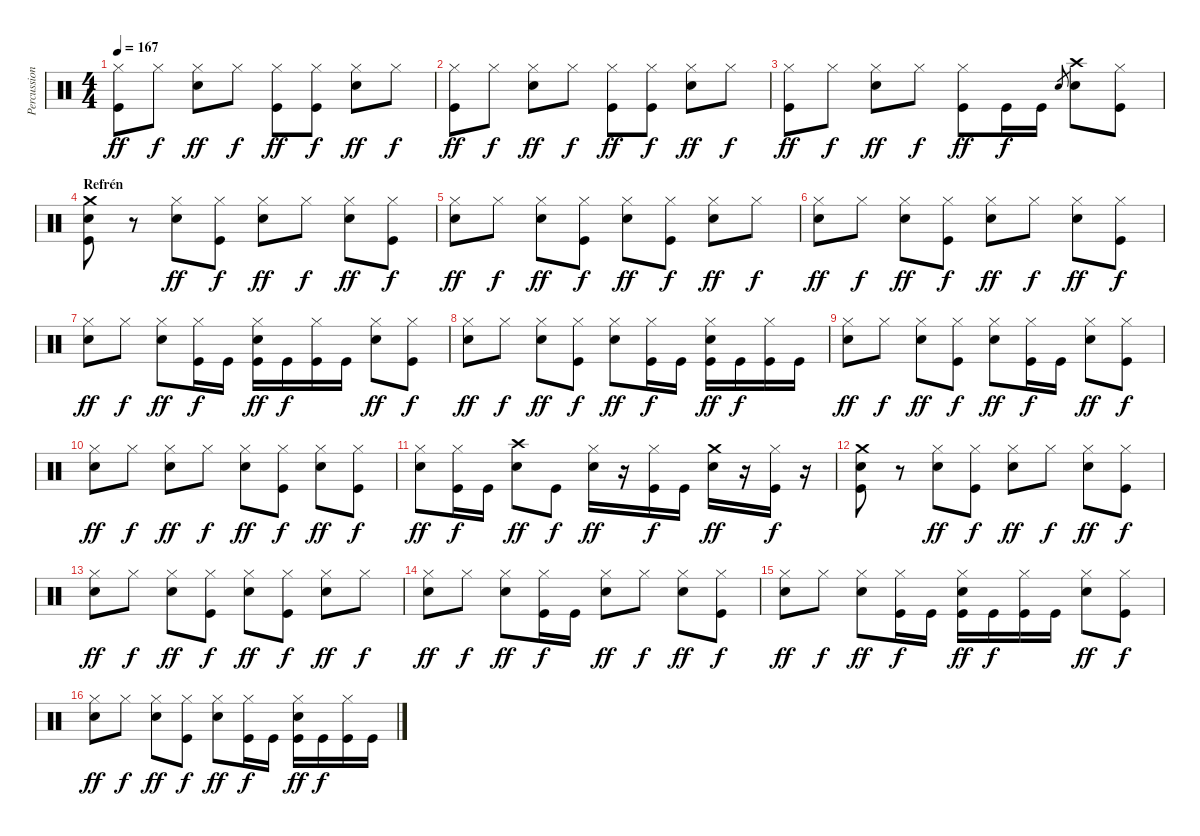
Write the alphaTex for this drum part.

\track ("Percussion" "Percussion") {instrument percussion}
\staff {score}
\articulation defaults
\ts (4 4)
\tempo 167
\clef neutral
\ks c
("Hi-Hat (closed)" "Kick (hit)").8{dy ff} "Hi-Hat (closed)".8{dy f} ("Hi-Hat (closed)" "Electric Snare (hit)").8{dy ff} "Hi-Hat (closed)".8{dy f} ("Hi-Hat (closed)" "Kick (hit)").8{dy ff} ("Hi-Hat (closed)" "Kick (hit)").8{dy f} ("Hi-Hat (closed)" "Electric Snare (hit)").8{dy ff} "Hi-Hat (closed)".8{dy f} |
("Hi-Hat (closed)" "Kick (hit)").8{dy ff} "Hi-Hat (closed)".8{dy f} ("Hi-Hat (closed)" "Electric Snare (hit)").8{dy ff} "Hi-Hat (closed)".8{dy f} ("Hi-Hat (closed)" "Kick (hit)").8{dy ff} ("Hi-Hat (closed)" "Kick (hit)").8{dy f} ("Hi-Hat (closed)" "Electric Snare (hit)").8{dy ff} "Hi-Hat (closed)".8{dy f} |
("Hi-Hat (closed)" "Kick (hit)").8{dy ff} "Hi-Hat (closed)".8{dy f} ("Hi-Hat (closed)" "Electric Snare (hit)").8{dy ff} "Hi-Hat (closed)".8{dy f} ("Hi-Hat (closed)" "Kick (hit)").8{dy ff} "Kick (hit)".16{dy f} "Kick (hit)".16 "Electric Snare (hit)".8{gr} ("Crash high (hit)" "Electric Snare (hit)").8 ("Hi-Hat (closed)" "Kick (hit)").8 |
\section ("" "Refrén")
("Crash medium (hit)" "Kick (hit)" "Electric Snare (hit)").8 r.8 ("Hi-Hat (closed)" "Electric Snare (hit)").8{dy ff} ("Hi-Hat (closed)" "Kick (hit)").8{dy f} ("Hi-Hat (closed)" "Electric Snare (hit)").8{dy ff} "Hi-Hat (closed)".8{dy f} ("Hi-Hat (closed)" "Electric Snare (hit)").8{dy ff} ("Hi-Hat (closed)" "Kick (hit)").8{dy f} |
("Hi-Hat (closed)" "Electric Snare (hit)").8{dy ff} "Hi-Hat (closed)".8{dy f} ("Hi-Hat (closed)" "Electric Snare (hit)").8{dy ff} ("Hi-Hat (closed)" "Kick (hit)").8{dy f} ("Hi-Hat (closed)" "Electric Snare (hit)").8{dy ff} ("Hi-Hat (closed)" "Kick (hit)").8{dy f} ("Hi-Hat (closed)" "Electric Snare (hit)").8{dy ff} "Hi-Hat (closed)".8{dy f} |
("Hi-Hat (closed)" "Electric Snare (hit)").8{dy ff} "Hi-Hat (closed)".8{dy f} ("Hi-Hat (closed)" "Electric Snare (hit)").8{dy ff} ("Hi-Hat (closed)" "Kick (hit)").8{dy f} ("Hi-Hat (closed)" "Electric Snare (hit)").8{dy ff} "Hi-Hat (closed)".8{dy f} ("Hi-Hat (closed)" "Electric Snare (hit)").8{dy ff} ("Hi-Hat (closed)" "Kick (hit)").8{dy f} |
("Hi-Hat (closed)" "Electric Snare (hit)").8{dy ff} "Hi-Hat (closed)".8{dy f} ("Hi-Hat (closed)" "Electric Snare (hit)").8{dy ff} ("Hi-Hat (closed)" "Kick (hit)").16{dy f} "Kick (hit)".16 ("Hi-Hat (closed)" "Kick (hit)" "Electric Snare (hit)").16{dy ff} "Kick (hit)".16{dy f} ("Hi-Hat (closed)" "Kick (hit)").16 "Kick (hit)".16 ("Hi-Hat (closed)" "Electric Snare (hit)").8{dy ff} ("Hi-Hat (closed)" "Kick (hit)").8{dy f} |
("Hi-Hat (closed)" "Electric Snare (hit)").8{dy ff} "Hi-Hat (closed)".8{dy f} ("Hi-Hat (closed)" "Electric Snare (hit)").8{dy ff} ("Hi-Hat (closed)" "Kick (hit)").8{dy f} ("Hi-Hat (closed)" "Electric Snare (hit)").8{dy ff} ("Hi-Hat (closed)" "Kick (hit)").16{dy f} "Kick (hit)".16 ("Hi-Hat (closed)" "Kick (hit)" "Electric Snare (hit)").16{dy ff} "Kick (hit)".16{dy f} ("Hi-Hat (closed)" "Kick (hit)").16 "Kick (hit)".16 |
("Hi-Hat (closed)" "Electric Snare (hit)").8{dy ff} "Hi-Hat (closed)".8{dy f} ("Hi-Hat (closed)" "Electric Snare (hit)").8{dy ff} ("Hi-Hat (closed)" "Kick (hit)").8{dy f} ("Hi-Hat (closed)" "Electric Snare (hit)").8{dy ff} ("Hi-Hat (closed)" "Kick (hit)").16{dy f} "Kick (hit)".16 ("Hi-Hat (closed)" "Electric Snare (hit)").8{dy ff} ("Hi-Hat (closed)" "Kick (hit)").8{dy f} |
("Hi-Hat (closed)" "Electric Snare (hit)").8{dy ff} "Hi-Hat (closed)".8{dy f} ("Hi-Hat (closed)" "Electric Snare (hit)").8{dy ff} "Hi-Hat (closed)".8{dy f} ("Hi-Hat (closed)" "Electric Snare (hit)").8{dy ff} ("Hi-Hat (closed)" "Kick (hit)").8{dy f} ("Hi-Hat (closed)" "Electric Snare (hit)").8{dy ff} ("Hi-Hat (closed)" "Kick (hit)").8{dy f} |
("Hi-Hat (closed)" "Electric Snare (hit)").8{dy ff} ("Hi-Hat (closed)" "Kick (hit)").16{dy f} "Kick (hit)".16 ("Crash high (hit)" "Electric Snare (hit)").8{dy ff} "Kick (hit)".8{dy f} ("Hi-Hat (closed)" "Electric Snare (hit)").16{dy ff} r.16 ("Hi-Hat (closed)" "Kick (hit)").16{dy f} "Kick (hit)".16 ("Crash medium (hit)" "Electric Snare (hit)").16{dy ff} r.16 ("Hi-Hat (closed)" "Kick (hit)").16{dy f} r.16 |
("Crash medium (hit)" "Kick (hit)" "Electric Snare (hit)").8 r.8 ("Hi-Hat (closed)" "Electric Snare (hit)").8{dy ff} ("Hi-Hat (closed)" "Kick (hit)").8{dy f} ("Hi-Hat (closed)" "Electric Snare (hit)").8{dy ff} "Hi-Hat (closed)".8{dy f} ("Hi-Hat (closed)" "Electric Snare (hit)").8{dy ff} ("Hi-Hat (closed)" "Kick (hit)").8{dy f} |
("Hi-Hat (closed)" "Electric Snare (hit)").8{dy ff} "Hi-Hat (closed)".8{dy f} ("Hi-Hat (closed)" "Electric Snare (hit)").8{dy ff} ("Hi-Hat (closed)" "Kick (hit)").8{dy f} ("Hi-Hat (closed)" "Electric Snare (hit)").8{dy ff} ("Hi-Hat (closed)" "Kick (hit)").8{dy f} ("Hi-Hat (closed)" "Electric Snare (hit)").8{dy ff} "Hi-Hat (closed)".8{dy f} |
("Hi-Hat (closed)" "Electric Snare (hit)").8{dy ff} "Hi-Hat (closed)".8{dy f} ("Hi-Hat (closed)" "Electric Snare (hit)").8{dy ff} ("Hi-Hat (closed)" "Kick (hit)").16{dy f} "Kick (hit)".16 ("Hi-Hat (closed)" "Electric Snare (hit)").8{dy ff} "Hi-Hat (closed)".8{dy f} ("Hi-Hat (closed)" "Electric Snare (hit)").8{dy ff} ("Hi-Hat (closed)" "Kick (hit)").8{dy f} |
("Hi-Hat (closed)" "Electric Snare (hit)").8{dy ff} "Hi-Hat (closed)".8{dy f} ("Hi-Hat (closed)" "Electric Snare (hit)").8{dy ff} ("Hi-Hat (closed)" "Kick (hit)").16{dy f} "Kick (hit)".16 ("Hi-Hat (closed)" "Kick (hit)" "Electric Snare (hit)").16{dy ff} "Kick (hit)".16{dy f} ("Hi-Hat (closed)" "Kick (hit)").16 "Kick (hit)".16 ("Hi-Hat (closed)" "Electric Snare (hit)").8{dy ff} ("Hi-Hat (closed)" "Kick (hit)").8{dy f} |
("Hi-Hat (closed)" "Electric Snare (hit)").8{dy ff} "Hi-Hat (closed)".8{dy f} ("Hi-Hat (closed)" "Electric Snare (hit)").8{dy ff} ("Hi-Hat (closed)" "Kick (hit)").8{dy f} ("Hi-Hat (closed)" "Electric Snare (hit)").8{dy ff} ("Hi-Hat (closed)" "Kick (hit)").16{dy f} "Kick (hit)".16 ("Hi-Hat (closed)" "Kick (hit)" "Electric Snare (hit)").16{dy ff} "Kick (hit)".16{dy f} ("Hi-Hat (closed)" "Kick (hit)").16 "Kick (hit)".16
